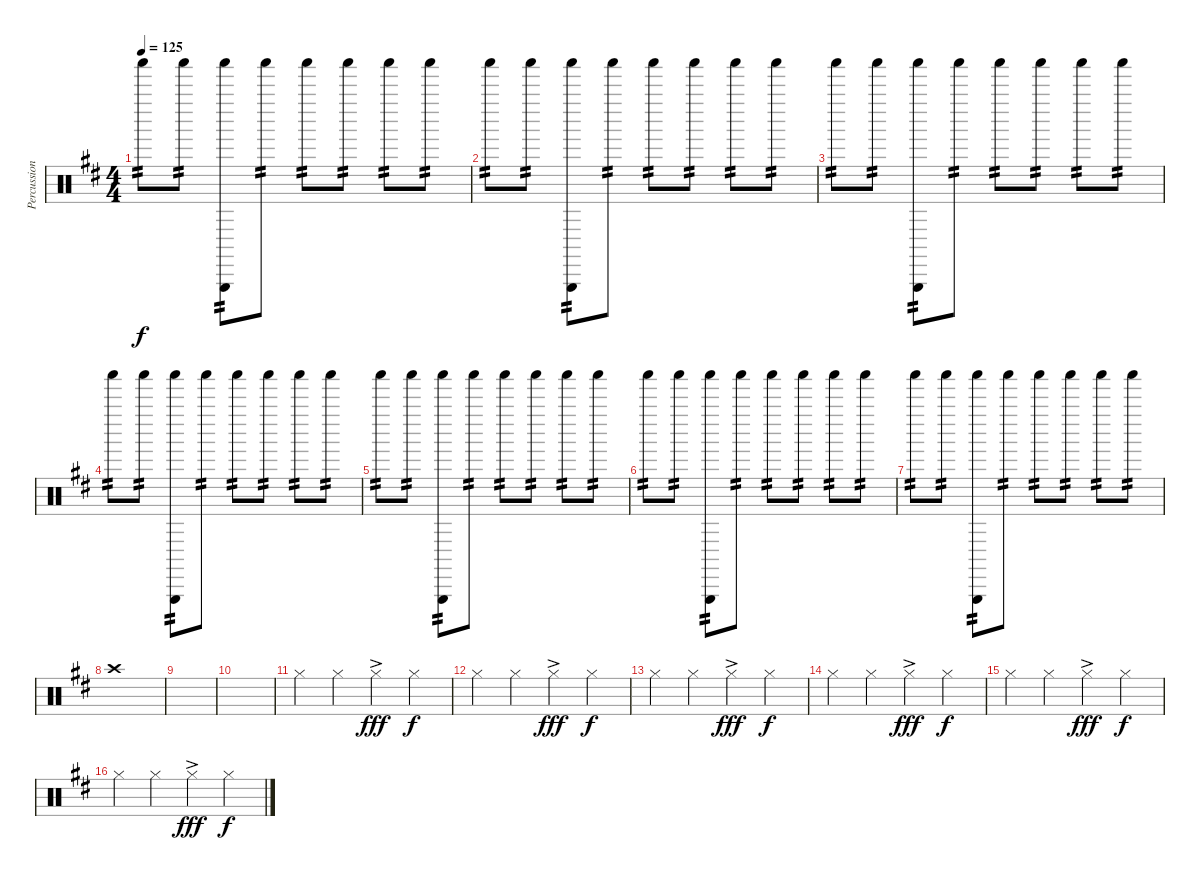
\track ("Percussion" "Percussion") {instrument percussion}
\staff {score}
\articulation defaults
\ts (4 4)
\tempo 125
\clef neutral
\ks d "Shaker (hit)".8{tp 2 dy f} "Shaker (hit)".8{tp 2}
("Shaker (hit)" "Triangle (hit)").8{tp 2} "Shaker (hit)".8{tp 2} "Shaker (hit)".8{tp 2} "Shaker (hit)".8{tp 2} "Shaker (hit)".8{tp 2} "Shaker (hit)".8{tp 2} |
"Shaker (hit)".8{tp 2} "Shaker (hit)".8{tp 2} ("Shaker (hit)" "Triangle (hit)").8{tp 2} "Shaker (hit)".8{tp 2} "Shaker (hit)".8{tp 2} "Shaker (hit)".8{tp 2} "Shaker (hit)".8{tp 2} "Shaker (hit)".8{tp 2} |
"Shaker (hit)".8{tp 2} "Shaker (hit)".8{tp 2} ("Shaker (hit)" "Triangle (hit)").8{tp 2} "Shaker (hit)".8{tp 2} "Shaker (hit)".8{tp 2} "Shaker (hit)".8{tp 2} "Shaker (hit)".8{tp 2} "Shaker (hit)".8{tp 2} |
"Shaker (hit)".8{tp 2} "Shaker (hit)".8{tp 2} ("Shaker (hit)" "Triangle (hit)").8{tp 2} "Shaker (hit)".8{tp 2} "Shaker (hit)".8{tp 2} "Shaker (hit)".8{tp 2} "Shaker (hit)".8{tp 2} "Shaker (hit)".8{tp 2} |
"Shaker (hit)".8{tp 2} "Shaker (hit)".8{tp 2} ("Shaker (hit)" "Triangle (hit)").8{tp 2} "Shaker (hit)".8{tp 2} "Shaker (hit)".8{tp 2} "Shaker (hit)".8{tp 2} "Shaker (hit)".8{tp 2} "Shaker (hit)".8{tp 2} |
"Shaker (hit)".8{tp 2} "Shaker (hit)".8{tp 2} ("Shaker (hit)" "Triangle (hit)").8{tp 2} "Shaker (hit)".8{tp 2} "Shaker (hit)".8{tp 2} "Shaker (hit)".8{tp 2} "Shaker (hit)".8{tp 2} "Shaker (hit)".8{tp 2} |
"Shaker (hit)".8{tp 2} "Shaker (hit)".8{tp 2} ("Shaker (hit)" "Triangle (hit)").8{tp 2} "Shaker (hit)".8{tp 2} "Shaker (hit)".8{tp 2} "Shaker (hit)".8{tp 2} "Shaker (hit)".8{tp 2} "Shaker (hit)".8{tp 2} |
"Crash high (hit)".1 |
|
|
"Hi-Hat (closed)".4 "Hi-Hat (closed)".4 "Hi-Hat (closed)"{ac}.4{dy fff} "Hi-Hat (closed)".4{dy f} |
"Hi-Hat (closed)".4 "Hi-Hat (closed)".4 "Hi-Hat (closed)"{ac}.4{dy fff} "Hi-Hat (closed)".4{dy f} |
"Hi-Hat (closed)".4 "Hi-Hat (closed)".4 "Hi-Hat (closed)"{ac}.4{dy fff} "Hi-Hat (closed)".4{dy f} |
"Hi-Hat (closed)".4 "Hi-Hat (closed)".4 "Hi-Hat (closed)"{ac}.4{dy fff} "Hi-Hat (closed)".4{dy f} |
"Hi-Hat (closed)".4 "Hi-Hat (closed)".4 "Hi-Hat (closed)"{ac}.4{dy fff} "Hi-Hat (closed)".4{dy f} |
"Hi-Hat (closed)".4 "Hi-Hat (closed)".4 "Hi-Hat (closed)"{ac}.4{dy fff} "Hi-Hat (closed)".4{dy f}
